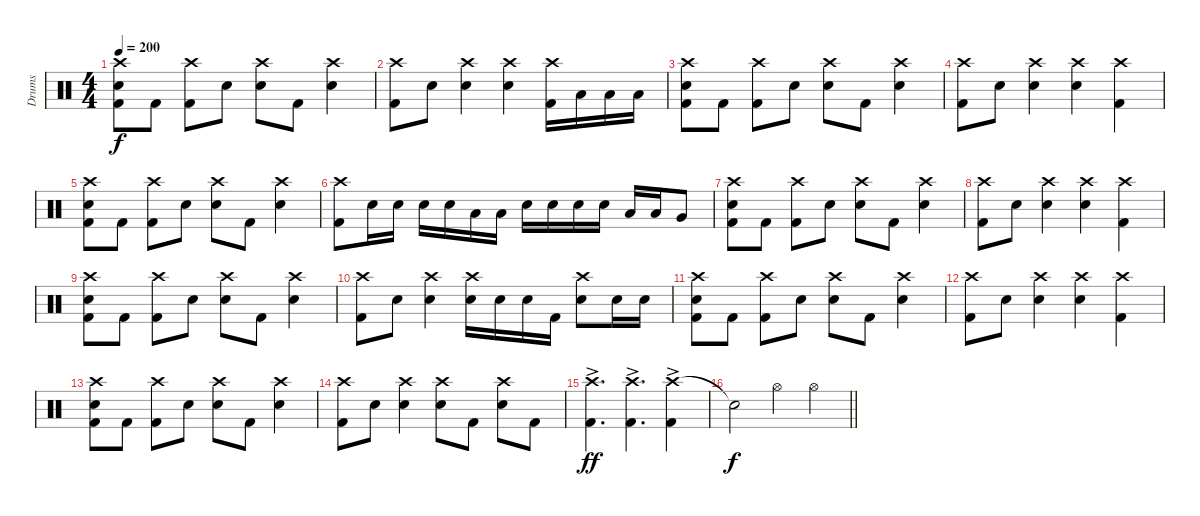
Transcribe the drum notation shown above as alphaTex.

\track ("Drums" "Drums") {instrument percussion}
\staff {score}
\articulation defaults
\ts (4 4)
\tempo 200
\clef neutral
\ks c
("Crash high (hit)" "Electric Snare (hit)" "Kick (hit) 2").8{dy f} "Kick (hit) 2".8 ("Crash high (hit)" "Kick (hit) 2").8 "Electric Snare (hit)".8 ("Crash high (hit)" "Electric Snare (hit)").8 "Kick (hit) 2".8 ("Crash high (hit)" "Electric Snare (hit)").4 |
("Crash high (hit)" "Kick (hit) 2").8 "Electric Snare (hit)".8 ("Crash high (hit)" "Electric Snare (hit)").4 ("Crash high (hit)" "Electric Snare (hit)").4 ("Crash high (hit)" "Kick (hit) 2").16 "Low Tom (hit)".16 "Low Tom (hit)".16 "Low Tom (hit)".16 |
("Crash high (hit)" "Electric Snare (hit)" "Kick (hit) 2").8 "Kick (hit) 2".8 ("Crash high (hit)" "Kick (hit) 2").8 "Electric Snare (hit)".8 ("Crash high (hit)" "Electric Snare (hit)").8 "Kick (hit) 2".8 ("Crash high (hit)" "Electric Snare (hit)").4 |
("Crash high (hit)" "Kick (hit) 2").8 "Electric Snare (hit)".8 ("Crash high (hit)" "Electric Snare (hit)").4 ("Crash high (hit)" "Electric Snare (hit)").4 ("Crash high (hit)" "Kick (hit) 2").4 |
("Crash high (hit)" "Electric Snare (hit)" "Kick (hit) 2").8 "Kick (hit) 2".8 ("Crash high (hit)" "Kick (hit) 2").8 "Electric Snare (hit)".8 ("Crash high (hit)" "Electric Snare (hit)").8 "Kick (hit) 2".8 ("Crash high (hit)" "Electric Snare (hit)").4 |
("Crash high (hit)" "Kick (hit) 2").8 "Electric Snare (hit)".16 "Electric Snare (hit)".16 "Electric Snare (hit)".16 "Electric Snare (hit)".16 "Low Tom (hit)".16 "Low Tom (hit)".16 "Electric Snare (hit)".16 "Electric Snare (hit)".16 "Electric Snare (hit)".16 "Electric Snare (hit)".16 "Low Tom (hit)".16 "Low Tom (hit)".16 "Very Low Tom (hit)".8 |
("Crash high (hit)" "Electric Snare (hit)" "Kick (hit) 2").8 "Kick (hit) 2".8 ("Crash high (hit)" "Kick (hit) 2").8 "Electric Snare (hit)".8 ("Crash high (hit)" "Electric Snare (hit)").8 "Kick (hit) 2".8 ("Crash high (hit)" "Electric Snare (hit)").4 |
("Crash high (hit)" "Kick (hit) 2").8 "Electric Snare (hit)".8 ("Crash high (hit)" "Electric Snare (hit)").4 ("Crash high (hit)" "Electric Snare (hit)").4 ("Crash high (hit)" "Kick (hit) 2").4 |
("Crash high (hit)" "Electric Snare (hit)" "Kick (hit) 2").8 "Kick (hit) 2".8 ("Crash high (hit)" "Kick (hit) 2").8 "Electric Snare (hit)".8 ("Crash high (hit)" "Electric Snare (hit)").8 "Kick (hit) 2".8 ("Crash high (hit)" "Electric Snare (hit)").4 |
("Crash high (hit)" "Kick (hit) 2").8 "Electric Snare (hit)".8 ("Crash high (hit)" "Electric Snare (hit)").4 ("Crash high (hit)" "Electric Snare (hit)").16 "Electric Snare (hit)".16 "Electric Snare (hit)".16 "Kick (hit) 2".16 ("Crash high (hit)" "Electric Snare (hit)").8 "Electric Snare (hit)".16 "Electric Snare (hit)".16 |
("Crash high (hit)" "Electric Snare (hit)" "Kick (hit) 2").8 "Kick (hit) 2".8 ("Crash high (hit)" "Kick (hit) 2").8 "Electric Snare (hit)".8 ("Crash high (hit)" "Electric Snare (hit)").8 "Kick (hit) 2".8 ("Crash high (hit)" "Electric Snare (hit)").4 |
("Crash high (hit)" "Kick (hit) 2").8 "Electric Snare (hit)".8 ("Crash high (hit)" "Electric Snare (hit)").4 ("Crash high (hit)" "Electric Snare (hit)").4 ("Crash high (hit)" "Kick (hit) 2").4 |
("Crash high (hit)" "Electric Snare (hit)" "Kick (hit) 2").8 "Kick (hit) 2".8 ("Crash high (hit)" "Kick (hit) 2").8 "Electric Snare (hit)".8 ("Crash high (hit)" "Electric Snare (hit)").8 "Kick (hit) 2".8 ("Crash high (hit)" "Electric Snare (hit)").4 |
("Crash high (hit)" "Kick (hit) 2").8 "Electric Snare (hit)".8 ("Crash high (hit)" "Electric Snare (hit)").4 ("Crash high (hit)" "Electric Snare (hit)").8 "Kick (hit) 2".8 ("Crash high (hit)" "Electric Snare (hit)").8 "Kick (hit) 2".8 |
("Crash high (hit)" "Kick (hit) 2"{ac}).4{d dy ff} ("Crash high (hit)" "Kick (hit) 2"{ac}).4{d} ("Crash high (hit)" "Kick (hit) 2"{ac}).4 |
\barLineRight lightlight "Snare (hit)"{t}.2{dy f} "Hi-Hat (open)".4 "Hi-Hat (open)".4
